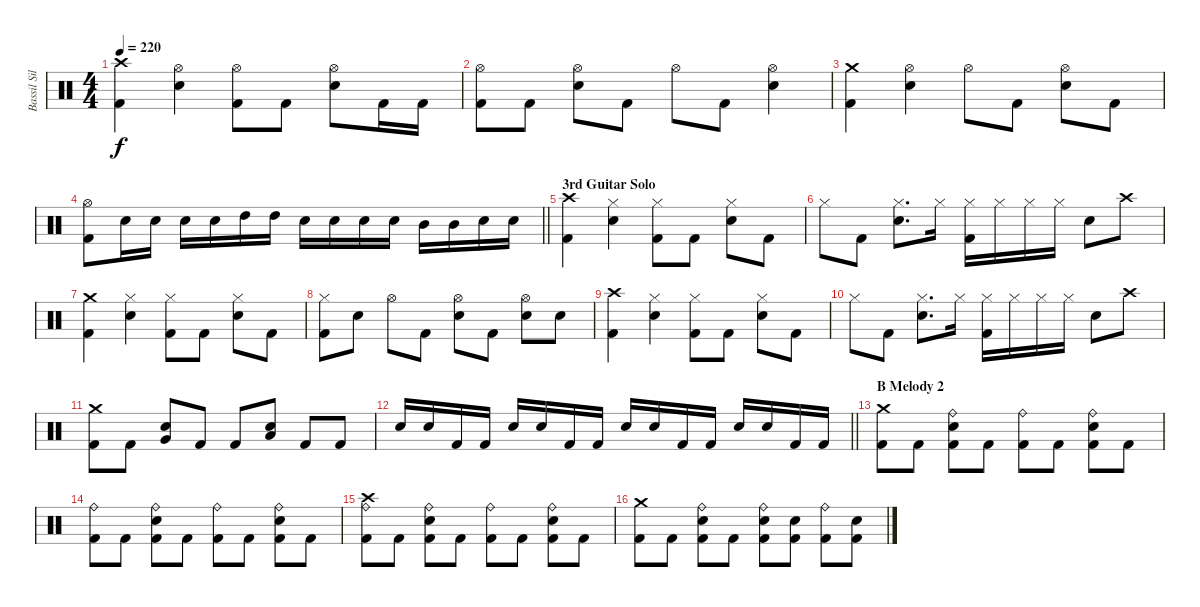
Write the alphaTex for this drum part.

\track ("Bassil Silver-Hajo" "Bassil Sil") {instrument percussion}
\staff {score}
\articulation defaults
\ts (4 4)
\tempo 220
\clef neutral
\ks c
("Crash high (hit)" "Kick (hit) 2").4{dy f} ("Hi-Hat (open)" "Snare (hit) 2").4 ("Hi-Hat (open)" "Kick (hit) 2").8 "Kick (hit) 2".8 ("Hi-Hat (open)" "Snare (hit) 2").8 "Kick (hit) 2".16 "Kick (hit) 2".16 |
("Hi-Hat (open)" "Kick (hit) 2").8 "Kick (hit) 2".8 ("Hi-Hat (open)" "Snare (hit) 2").8 "Kick (hit) 2".8 "Hi-Hat (open)".8 "Kick (hit) 2".8 ("Hi-Hat (open)" "Snare (hit) 2").4 |
("Crash medium (hit)" "Kick (hit) 2").4 ("Hi-Hat (open)" "Snare (hit) 2").4 "Hi-Hat (open)".8 "Kick (hit) 2".8 ("Hi-Hat (open)" "Snare (hit) 2").8 "Kick (hit) 2".8 |
\barLineRight lightlight
("Hi-Hat (open)" "Kick (hit) 2").8 "Snare (hit) 2".16 "Snare (hit) 2".16 "Snare (hit) 2".16 "Snare (hit) 2".16 "High Tom (hit)".16 "High Tom (hit)".16 "Snare (hit) 2".16 "Snare (hit) 2".16 "Snare (hit) 2".16 "Snare (hit) 2".16 "Mid Tom (hit)".16 "Mid Tom (hit)".16 "Snare (hit) 2".16 "Snare (hit) 2".16 |
\section ("" "3rd Guitar Solo")
("Crash high (hit)" "Kick (hit) 2").4 ("Hi-Hat (closed)" "Snare (hit) 2").4 ("Hi-Hat (closed)" "Kick (hit) 2").8 "Kick (hit) 2".8 ("Hi-Hat (closed)" "Snare (hit) 2").8 "Kick (hit) 2".8 |
"Hi-Hat (closed)".8 "Kick (hit) 2".8 ("Hi-Hat (closed)" "Snare (hit) 2").8{d} "Hi-Hat (closed)".16 ("Hi-Hat (closed)" "Kick (hit) 2").16 "Hi-Hat (closed)".16 "Hi-Hat (closed)".16 "Hi-Hat (closed)".16 "Snare (hit) 2".8 "Crash high (hit)".8 |
("Crash medium (hit)" "Kick (hit) 2").4 ("Hi-Hat (closed)" "Snare (hit) 2").4 ("Hi-Hat (closed)" "Kick (hit) 2").8 "Kick (hit) 2".8 ("Hi-Hat (closed)" "Snare (hit) 2").8 "Kick (hit) 2".8 |
("Hi-Hat (closed)" "Kick (hit) 2").8 "Snare (hit) 2".8 "Hi-Hat (open)".8 "Kick (hit) 2".8 ("Hi-Hat (open)" "Snare (hit) 2").8 "Kick (hit) 2".8 ("Hi-Hat (open)" "Snare (hit) 2").8 "Snare (hit) 2".8 |
("Crash high (hit)" "Kick (hit) 2").4 ("Hi-Hat (closed)" "Snare (hit) 2").4 ("Hi-Hat (closed)" "Kick (hit) 2").8 "Kick (hit) 2".8 ("Hi-Hat (closed)" "Snare (hit) 2").8 "Kick (hit) 2".8 |
"Hi-Hat (closed)".8 "Kick (hit) 2".8 ("Hi-Hat (closed)" "Snare (hit) 2").8{d} "Hi-Hat (closed)".16 ("Hi-Hat (closed)" "Kick (hit) 2").16 "Hi-Hat (closed)".16 "Hi-Hat (closed)".16 "Hi-Hat (closed)".16 "Snare (hit) 2".8 "Crash high (hit)".8 |
("Crash medium (hit)" "Kick (hit) 2").8 "Kick (hit) 2".8 ("Very Low Tom (hit)" "Snare (hit) 2").8 "Kick (hit) 2".8 "Kick (hit) 2".8 ("Low Floor Tom (hit)" "Snare (hit) 2").8 "Kick (hit) 2".8 "Kick (hit) 2".8 |
\barLineRight lightlight "Snare (hit) 2".16 "Snare (hit) 2".16 "Kick (hit) 2".16 "Kick (hit) 2".16 "Snare (hit) 2".16 "Snare (hit) 2".16 "Kick (hit) 2".16 "Kick (hit) 2".16 "Snare (hit) 2".16 "Snare (hit) 2".16 "Kick (hit) 2".16 "Kick (hit) 2".16 "Snare (hit) 2".16 "Snare (hit) 2".16 "Kick (hit) 2".16 "Kick (hit) 2".16
|
\section ("" "B Melody 2")
("Crash medium (hit)" "Kick (hit) 2").8 "Kick (hit) 2".8 ("Ride (bell)" "Snare (hit) 2" "Kick (hit) 2").8 "Kick (hit) 2".8 ("Ride (bell)" "Kick (hit) 2").8 "Kick (hit) 2".8 ("Ride (bell)" "Snare (hit) 2" "Kick (hit) 2").8 "Kick (hit) 2".8 |
("Ride (bell)" "Kick (hit) 2").8 "Kick (hit) 2".8 ("Ride (bell)" "Snare (hit) 2" "Kick (hit) 2").8 "Kick (hit) 2".8 ("Ride (bell)" "Kick (hit) 2").8 "Kick (hit) 2".8 ("Ride (bell)" "Snare (hit) 2" "Kick (hit) 2").8 "Kick (hit) 2".8 |
("Crash high (hit)" "Ride (bell)" "Kick (hit) 2").8 "Kick (hit) 2".8 ("Ride (bell)" "Snare (hit) 2" "Kick (hit) 2").8 "Kick (hit) 2".8 ("Ride (bell)" "Kick (hit) 2").8 "Kick (hit) 2".8 ("Ride (bell)" "Snare (hit) 2" "Kick (hit) 2").8 "Kick (hit) 2".8 |
("Crash medium (hit)" "Kick (hit) 2").8 "Kick (hit) 2".8 ("Ride (bell)" "Snare (hit) 2" "Kick (hit) 2").8 "Kick (hit) 2".8 ("Ride (bell)" "Snare (hit) 2" "Kick (hit) 2").8 ("Snare (hit) 2" "Kick (hit) 2").8 ("Ride (bell)" "Kick (hit) 2").8 ("Snare (hit) 2" "Kick (hit) 2").8
